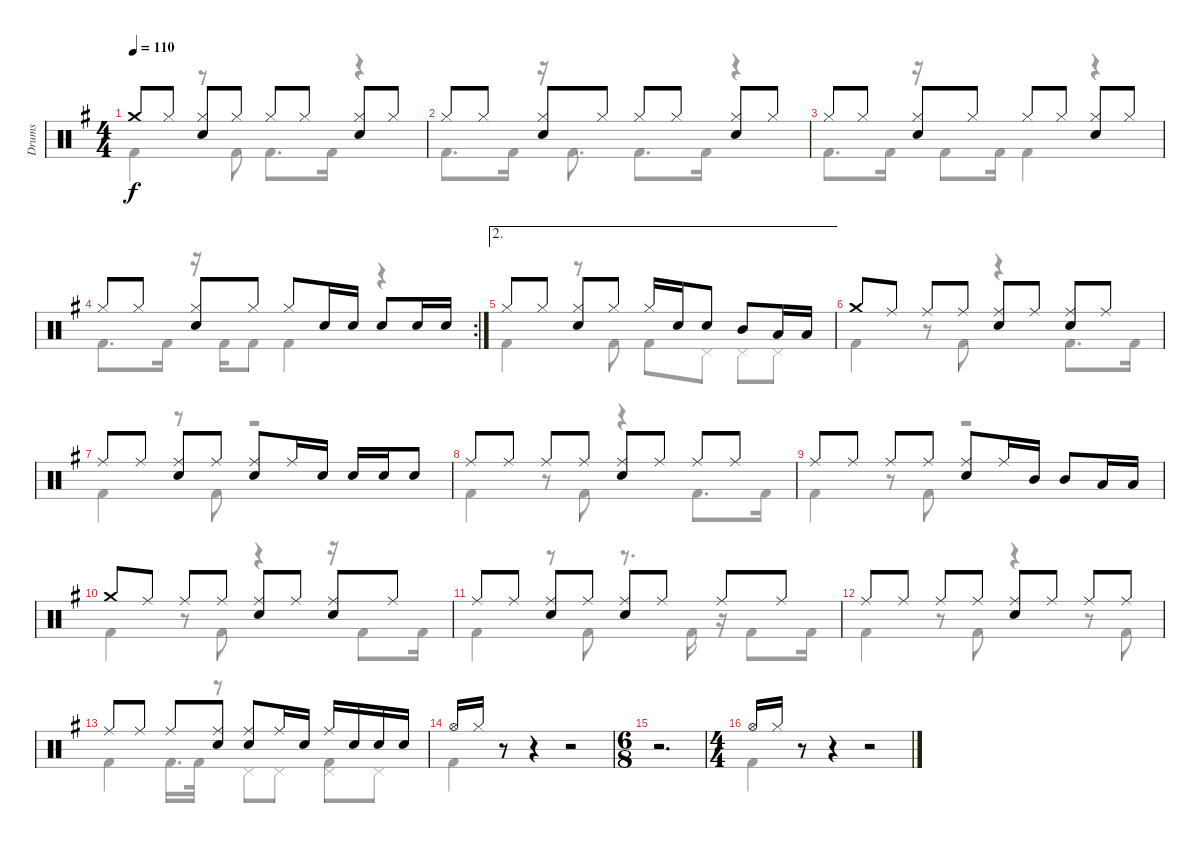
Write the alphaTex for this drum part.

\track ("Drums" "Drums") {instrument percussion}
\staff {score}
\articulation defaults
\voice
\ts (4 4)
\tempo 110
\clef neutral
\ks g "Crash medium (hit)".8{dy f} "Hi-Hat (closed)".8
("Hi-Hat (closed)" "Snare (hit) 2").8 "Hi-Hat (closed)".8 "Hi-Hat (closed)".8 "Hi-Hat (closed)".8 ("Hi-Hat (closed)" "Snare (hit) 2").8 "Hi-Hat (closed)".8 |
"Hi-Hat (closed)".8 "Hi-Hat (closed)".8 ("Hi-Hat (closed)" "Snare (hit) 2").8 "Hi-Hat (closed)".8 "Hi-Hat (closed)".8 "Hi-Hat (closed)".8 ("Hi-Hat (closed)" "Snare (hit) 2").8 "Hi-Hat (closed)".8 |
"Hi-Hat (closed)".8 "Hi-Hat (closed)".8 ("Hi-Hat (closed)" "Snare (hit) 2").8 "Hi-Hat (closed)".8 "Hi-Hat (closed)".8 "Hi-Hat (closed)".8 ("Hi-Hat (closed)" "Snare (hit) 2").8 "Hi-Hat (closed)".8 |
\rc 2 "Hi-Hat (closed)".8 "Hi-Hat (closed)".8
("Hi-Hat (closed)" "Snare (hit) 2").8 "Hi-Hat (closed)".8 "Hi-Hat (closed)".8 "Snare (hit) 2".16 "Snare (hit) 2".16 "Snare (hit) 2".8 "Snare (hit) 2".16 "Snare (hit) 2".16 |
\ae 2 "Hi-Hat (closed)".8 "Hi-Hat (closed)".8
("Hi-Hat (closed)" "Snare (hit) 2").8 "Hi-Hat (closed)".8 "Hi-Hat (closed)".16 "Snare (hit) 2".16 "Snare (hit) 2".8 "Mid Tom (hit)".8 "Low Tom (hit)".16 "Low Tom (hit)".16 |
"Crash medium (hit)".8 "Ride (middle)".8 "Ride (middle)".8 "Ride (middle)".8 ("Ride (middle)" "Snare (hit) 2").8 "Ride (middle)".8 ("Ride (middle)" "Snare (hit) 2").8 "Ride (middle)".8 |
"Ride (middle)".8 "Ride (middle)".8 ("Ride (middle)" "Snare (hit) 2").8 "Ride (middle)".8 ("Ride (middle)" "Snare (hit) 2").8 "Ride (middle)".16 "Snare (hit) 2".16 "Snare (hit) 2".16 "Snare (hit) 2".16 "Snare (hit) 2".8 |
"Ride (middle)".8 "Ride (middle)".8 "Ride (middle)".8 "Ride (middle)".8 ("Ride (middle)" "Snare (hit) 2").8 "Ride (middle)".8 "Ride (middle)".8 "Ride (middle)".8 |
"Ride (middle)".8 "Ride (middle)".8 "Ride (middle)".8 "Ride (middle)".8 ("Ride (middle)" "Snare (hit) 2").8 "Ride (middle)".16 "Mid Tom (hit)".16 "Mid Tom (hit)".8 "Low Tom (hit)".16 "Low Tom (hit)".16 |
"Crash medium (hit)".8 "Ride (middle)".8 "Ride (middle)".8 "Ride (middle)".8 ("Ride (middle)" "Snare (hit) 2").8 "Ride (middle)".8 ("Ride (middle)" "Snare (hit) 2").8 "Ride (middle)".8 |
"Ride (middle)".8 "Ride (middle)".8 ("Ride (middle)" "Snare (hit) 2").8 "Ride (middle)".8 ("Ride (middle)" "Snare (hit) 2").8 "Ride (middle)".8 "Ride (middle)".8 "Ride (middle)".8 |
"Ride (middle)".8 "Ride (middle)".8 "Ride (middle)".8 "Ride (middle)".8 ("Ride (middle)" "Snare (hit) 2").8 "Ride (middle)".8 "Ride (middle)".8 "Ride (middle)".8 |
"Ride (middle)".8 "Ride (middle)".8 "Ride (middle)".8 ("Ride (middle)" "Snare (hit) 2").8 ("Ride (middle)" "Snare (hit) 2").8 "Ride (middle)".16 "Snare (hit) 2".16 "Ride (middle)".16 "Snare (hit) 2".16 "Snare (hit) 2".16 "Snare (hit) 2".16 |
"Hi-Hat (open)".16 "Hi-Hat (closed)".16 r.8 r.4 r.2 |
\ts (6 8)
r.2{d} |
\ts (4 4)
"Hi-Hat (open)".16 "Hi-Hat (closed)".16 r.8 r.4 r.2
\voice
\clef neutral
\ottava regular
\simile none
\ks g "Kick (hit) 2".4{dy f}
r.8 "Kick (hit) 2".8 "Kick (hit) 2".8{d} "Kick (hit) 2".16 r.4 |
"Kick (hit) 2".8{d} "Kick (hit) 2".16 r.16 "Kick (hit) 2".8{d} "Kick (hit) 2".8{d} "Kick (hit) 2".16 r.4 |
"Kick (hit) 2".8{d} "Kick (hit) 2".16 r.16 "Kick (hit) 2".8 "Kick (hit) 2".16 "Kick (hit) 2".4 r.4 |
"Kick (hit) 2".8{d} "Kick (hit) 2".16 r.16 "Kick (hit) 2".16 "Kick (hit) 2".8 "Kick (hit) 2".4 r.4 |
"Kick (hit) 2".4 r.8 "Kick (hit) 2".8 "Kick (hit) 2".8 "Pedal Hi-Hat (hit)".8 "Pedal Hi-Hat (hit)".8 "Pedal Hi-Hat (hit)".8 |
"Kick (hit) 2".4 r.8 "Kick (hit) 2".8 r.4 "Kick (hit) 2".8{d} "Kick (hit) 2".16 |
"Kick (hit) 2".4 r.8 "Kick (hit) 2".8 r.2 |
"Kick (hit) 2".4 r.8 "Kick (hit) 2".8 r.4 "Kick (hit) 2".8{d} "Kick (hit) 2".16 |
"Kick (hit) 2".4 r.8 "Kick (hit) 2".8 r.2 |
"Kick (hit) 2".4 r.8 "Kick (hit) 2".8 r.4 r.16 "Kick (hit) 2".8 "Kick (hit) 2".16 |
"Kick (hit) 2".4 r.8 "Kick (hit) 2".8 r.8{d} "Kick (hit) 2".16 r.16 "Kick (hit) 2".8 "Kick (hit) 2".16 |
"Kick (hit) 2".4 r.8 "Kick (hit) 2".8 r.4 r.8 "Kick (hit) 2".8 |
"Kick (hit) 2".4 "Kick (hit) 2".16{d} "Kick (hit) 2".32 r.8 "Pedal Hi-Hat (hit)".8 "Pedal Hi-Hat (hit)".8 ("Kick (hit) 2" "Pedal Hi-Hat (hit)").8 "Pedal Hi-Hat (hit)".8 |
"Kick (hit) 2".4 r.4 r.2 |
r.2{d} |
"Kick (hit) 2".4 r.4 r.2
